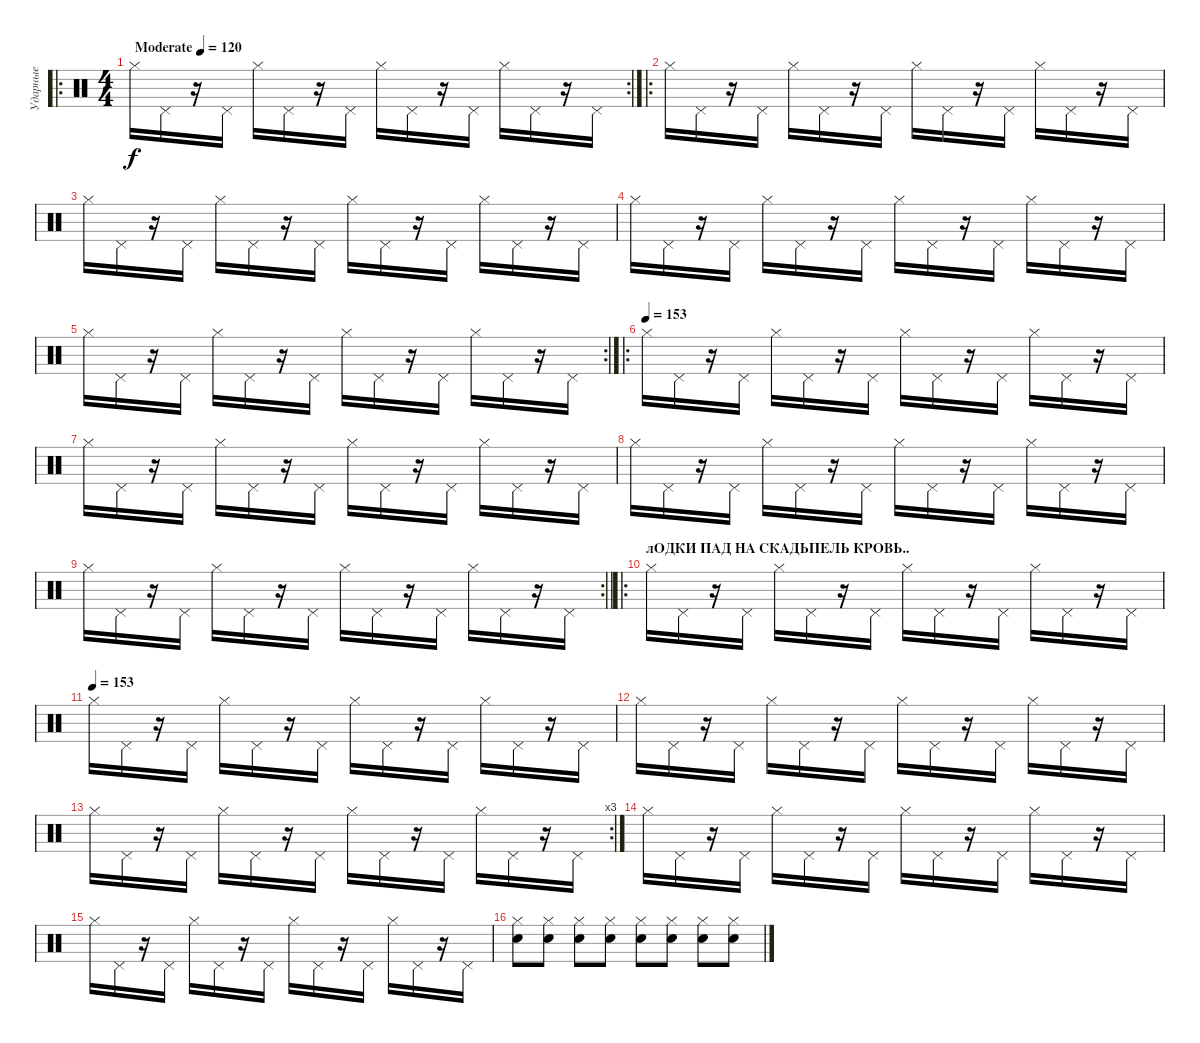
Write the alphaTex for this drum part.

\track ("Ударные" "Ударные") {instrument percussion}
\staff {score}
\articulation defaults
\ro
\rc 2
\ts (4 4)
\tempo (120 "Moderate")
\tempo 153
\tempo (120 "Moderate")
\clef neutral
\ks c "Hi-Hat (closed)".16{dy f volume 13} "Pedal Hi-Hat (hit)".16
r.16 "Pedal Hi-Hat (hit)".16 "Hi-Hat (closed)".16 "Pedal Hi-Hat (hit)".16 r.16 "Pedal Hi-Hat (hit)".16 "Hi-Hat (closed)".16 "Pedal Hi-Hat (hit)".16 r.16 "Pedal Hi-Hat (hit)".16 "Hi-Hat (closed)".16 "Pedal Hi-Hat (hit)".16 r.16 "Pedal Hi-Hat (hit)".16 |
\ro "Hi-Hat (closed)".16 "Pedal Hi-Hat (hit)".16
r.16 "Pedal Hi-Hat (hit)".16 "Hi-Hat (closed)".16 "Pedal Hi-Hat (hit)".16 r.16 "Pedal Hi-Hat (hit)".16 "Hi-Hat (closed)".16 "Pedal Hi-Hat (hit)".16 r.16 "Pedal Hi-Hat (hit)".16 "Hi-Hat (closed)".16 "Pedal Hi-Hat (hit)".16 r.16 "Pedal Hi-Hat (hit)".16 |
"Hi-Hat (closed)".16 "Pedal Hi-Hat (hit)".16 r.16 "Pedal Hi-Hat (hit)".16 "Hi-Hat (closed)".16 "Pedal Hi-Hat (hit)".16 r.16 "Pedal Hi-Hat (hit)".16 "Hi-Hat (closed)".16 "Pedal Hi-Hat (hit)".16 r.16 "Pedal Hi-Hat (hit)".16 "Hi-Hat (closed)".16 "Pedal Hi-Hat (hit)".16 r.16 "Pedal Hi-Hat (hit)".16 |
"Hi-Hat (closed)".16 "Pedal Hi-Hat (hit)".16 r.16 "Pedal Hi-Hat (hit)".16 "Hi-Hat (closed)".16 "Pedal Hi-Hat (hit)".16 r.16 "Pedal Hi-Hat (hit)".16 "Hi-Hat (closed)".16 "Pedal Hi-Hat (hit)".16 r.16 "Pedal Hi-Hat (hit)".16 "Hi-Hat (closed)".16 "Pedal Hi-Hat (hit)".16 r.16 "Pedal Hi-Hat (hit)".16 |
\rc 2 "Hi-Hat (closed)".16 "Pedal Hi-Hat (hit)".16
r.16 "Pedal Hi-Hat (hit)".16 "Hi-Hat (closed)".16 "Pedal Hi-Hat (hit)".16 r.16 "Pedal Hi-Hat (hit)".16 "Hi-Hat (closed)".16 "Pedal Hi-Hat (hit)".16 r.16 "Pedal Hi-Hat (hit)".16 "Hi-Hat (closed)".16 "Pedal Hi-Hat (hit)".16 r.16 "Pedal Hi-Hat (hit)".16 |
\ro
\tempo (153)
"Hi-Hat (closed)".16{volume 13} "Pedal Hi-Hat (hit)".16 r.16 "Pedal Hi-Hat (hit)".16 "Hi-Hat (closed)".16 "Pedal Hi-Hat (hit)".16 r.16 "Pedal Hi-Hat (hit)".16 "Hi-Hat (closed)".16 "Pedal Hi-Hat (hit)".16 r.16 "Pedal Hi-Hat (hit)".16 "Hi-Hat (closed)".16 "Pedal Hi-Hat (hit)".16 r.16 "Pedal Hi-Hat (hit)".16 |
"Hi-Hat (closed)".16 "Pedal Hi-Hat (hit)".16 r.16 "Pedal Hi-Hat (hit)".16 "Hi-Hat (closed)".16 "Pedal Hi-Hat (hit)".16 r.16 "Pedal Hi-Hat (hit)".16 "Hi-Hat (closed)".16 "Pedal Hi-Hat (hit)".16 r.16 "Pedal Hi-Hat (hit)".16 "Hi-Hat (closed)".16 "Pedal Hi-Hat (hit)".16 r.16 "Pedal Hi-Hat (hit)".16 |
"Hi-Hat (closed)".16 "Pedal Hi-Hat (hit)".16 r.16 "Pedal Hi-Hat (hit)".16 "Hi-Hat (closed)".16 "Pedal Hi-Hat (hit)".16 r.16 "Pedal Hi-Hat (hit)".16 "Hi-Hat (closed)".16 "Pedal Hi-Hat (hit)".16 r.16 "Pedal Hi-Hat (hit)".16 "Hi-Hat (closed)".16 "Pedal Hi-Hat (hit)".16 r.16 "Pedal Hi-Hat (hit)".16 |
\rc 2
\barLineRight lightlight "Hi-Hat (closed)".16 "Pedal Hi-Hat (hit)".16
r.16 "Pedal Hi-Hat (hit)".16 "Hi-Hat (closed)".16 "Pedal Hi-Hat (hit)".16 r.16 "Pedal Hi-Hat (hit)".16 "Hi-Hat (closed)".16 "Pedal Hi-Hat (hit)".16 r.16 "Pedal Hi-Hat (hit)".16 "Hi-Hat (closed)".16 "Pedal Hi-Hat (hit)".16 r.16 "Pedal Hi-Hat (hit)".16 |
\ro
\section ("" "лОДКИ ПАД НА СКАДЬПЕЛЬ КРОВЬ..")
"Hi-Hat (closed)".16 "Pedal Hi-Hat (hit)".16 r.16 "Pedal Hi-Hat (hit)".16 "Hi-Hat (closed)".16 "Pedal Hi-Hat (hit)".16 r.16 "Pedal Hi-Hat (hit)".16 "Hi-Hat (closed)".16 "Pedal Hi-Hat (hit)".16 r.16 "Pedal Hi-Hat (hit)".16 "Hi-Hat (closed)".16 "Pedal Hi-Hat (hit)".16 r.16 "Pedal Hi-Hat (hit)".16 |
\tempo (153)
"Hi-Hat (closed)".16{volume 13} "Pedal Hi-Hat (hit)".16 r.16 "Pedal Hi-Hat (hit)".16 "Hi-Hat (closed)".16 "Pedal Hi-Hat (hit)".16 r.16 "Pedal Hi-Hat (hit)".16 "Hi-Hat (closed)".16 "Pedal Hi-Hat (hit)".16 r.16 "Pedal Hi-Hat (hit)".16 "Hi-Hat (closed)".16 "Pedal Hi-Hat (hit)".16 r.16 "Pedal Hi-Hat (hit)".16 |
"Hi-Hat (closed)".16 "Pedal Hi-Hat (hit)".16 r.16 "Pedal Hi-Hat (hit)".16 "Hi-Hat (closed)".16 "Pedal Hi-Hat (hit)".16 r.16 "Pedal Hi-Hat (hit)".16 "Hi-Hat (closed)".16 "Pedal Hi-Hat (hit)".16 r.16 "Pedal Hi-Hat (hit)".16 "Hi-Hat (closed)".16 "Pedal Hi-Hat (hit)".16 r.16 "Pedal Hi-Hat (hit)".16 |
\rc 3 "Hi-Hat (closed)".16 "Pedal Hi-Hat (hit)".16
r.16 "Pedal Hi-Hat (hit)".16 "Hi-Hat (closed)".16 "Pedal Hi-Hat (hit)".16 r.16 "Pedal Hi-Hat (hit)".16 "Hi-Hat (closed)".16 "Pedal Hi-Hat (hit)".16 r.16 "Pedal Hi-Hat (hit)".16 "Hi-Hat (closed)".16 "Pedal Hi-Hat (hit)".16 r.16 "Pedal Hi-Hat (hit)".16 |
"Hi-Hat (closed)".16 "Pedal Hi-Hat (hit)".16 r.16 "Pedal Hi-Hat (hit)".16 "Hi-Hat (closed)".16 "Pedal Hi-Hat (hit)".16 r.16 "Pedal Hi-Hat (hit)".16 "Hi-Hat (closed)".16 "Pedal Hi-Hat (hit)".16 r.16 "Pedal Hi-Hat (hit)".16 "Hi-Hat (closed)".16 "Pedal Hi-Hat (hit)".16 r.16 "Pedal Hi-Hat (hit)".16 |
"Hi-Hat (closed)".16 "Pedal Hi-Hat (hit)".16 r.16 "Pedal Hi-Hat (hit)".16 "Hi-Hat (closed)".16 "Pedal Hi-Hat (hit)".16 r.16 "Pedal Hi-Hat (hit)".16 "Hi-Hat (closed)".16 "Pedal Hi-Hat (hit)".16 r.16 "Pedal Hi-Hat (hit)".16 "Hi-Hat (closed)".16 "Pedal Hi-Hat (hit)".16 r.16 "Pedal Hi-Hat (hit)".16 |
("Hi-Hat (closed)" "Snare (hit) 2").8 ("Hi-Hat (closed)" "Snare (hit) 2").8 ("Hi-Hat (closed)" "Snare (hit) 2").8 ("Hi-Hat (closed)" "Snare (hit) 2").8 ("Hi-Hat (closed)" "Snare (hit) 2").8 ("Hi-Hat (closed)" "Snare (hit) 2").8 ("Hi-Hat (closed)" "Snare (hit) 2").8 ("Hi-Hat (closed)" "Snare (hit) 2").8
